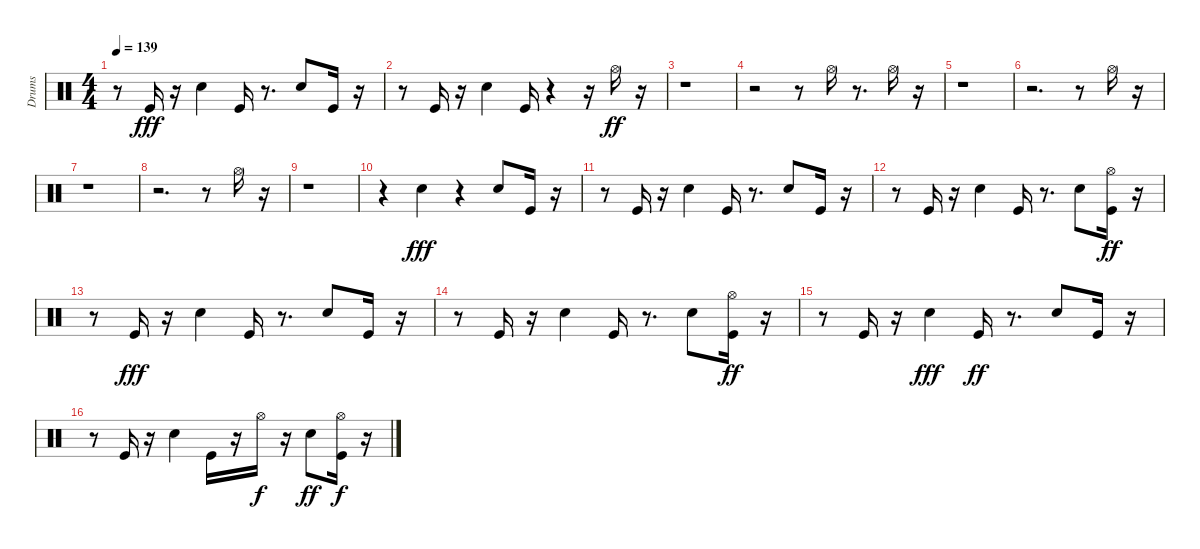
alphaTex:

\track ("Drums" "Drums") {instrument percussion}
\staff {score}
\articulation defaults
\ts (4 4)
\tempo 139
\clef neutral
\ks c
r.8{dy ff} "Kick (hit)".16{dy fff} r.16 "Snare (hit) 2".4 "Kick (hit)".16 r.8{d} "Snare (hit) 2".8 "Kick (hit)".16 r.16 |
r.8 "Kick (hit)".16 r.16 "Snare (hit) 2".4 "Kick (hit)".16 r.4 r.16 "Hi-Hat (open)".16{dy ff} r.16 |
r.1 |
r.2 r.8 "Hi-Hat (open)".16 r.8{d} "Hi-Hat (open)".16 r.16 |
r.1 |
r.2{d} r.8 "Hi-Hat (open)".16 r.16 |
r.1 |
r.2{d} r.8 "Hi-Hat (open)".16 r.16 |
r.1 |
r.4 "Snare (hit) 2".4{dy fff} r.4 "Snare (hit) 2".8 "Kick (hit)".16 r.16 |
r.8 "Kick (hit)".16 r.16 "Snare (hit) 2".4 "Kick (hit)".16 r.8{d} "Snare (hit) 2".8 "Kick (hit)".16 r.16 |
r.8 "Kick (hit)".16 r.16 "Snare (hit) 2".4 "Kick (hit)".16 r.8{d} "Snare (hit) 2".8 ("Kick (hit)" "Hi-Hat (open)").16{dy ff} r.16 |
r.8 "Kick (hit)".16{dy fff} r.16 "Snare (hit) 2".4 "Kick (hit)".16 r.8{d} "Snare (hit) 2".8 "Kick (hit)".16 r.16 |
r.8 "Kick (hit)".16 r.16 "Snare (hit) 2".4 "Kick (hit)".16 r.8{d} "Snare (hit) 2".8 ("Kick (hit)" "Hi-Hat (open)").16{dy ff} r.16 |
r.8 "Kick (hit)".16 r.16 "Snare (hit) 2".4{dy fff} "Kick (hit)".16{dy ff} r.8{d} "Snare (hit) 2".8 "Kick (hit)".16 r.16 |
r.8 "Kick (hit)".16 r.16 "Snare (hit) 2".4 "Kick (hit)".16 r.16 "Hi-Hat (open)".16{dy f} r.16 "Snare (hit) 2".8{dy ff} ("Kick (hit)" "Hi-Hat (open)").16{dy f} r.16
